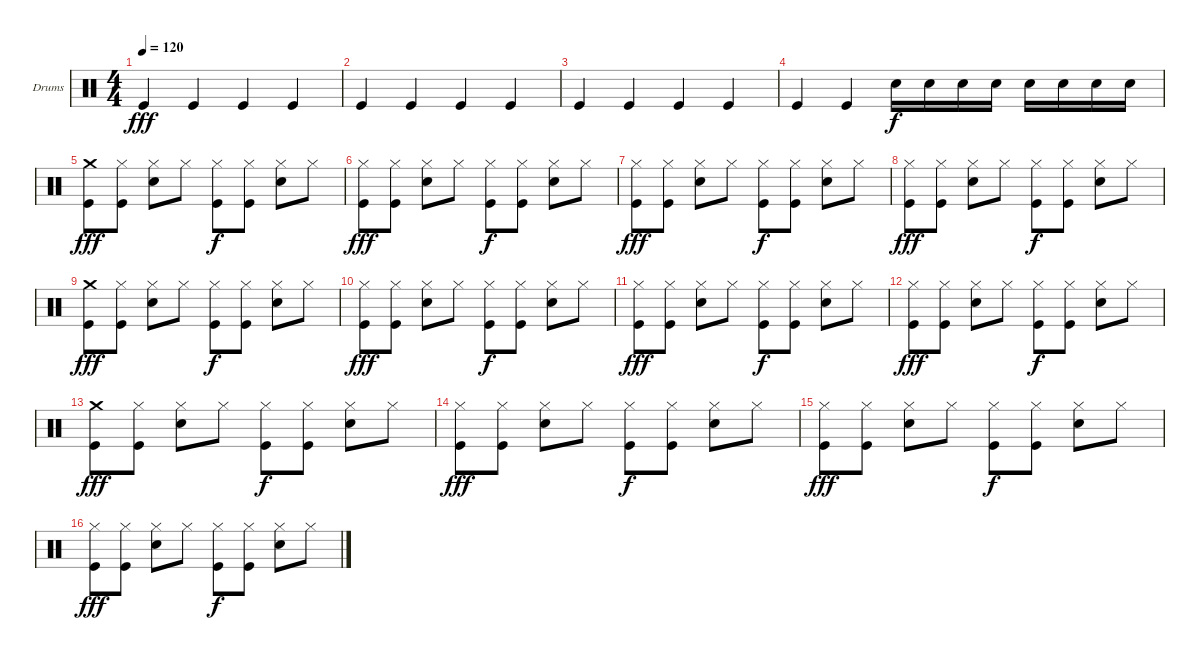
\defaultSystemsLayout 4
\bracketExtendMode groupsimilarinstruments
\firstSystemTrackNameOrientation horizontal
\otherSystemsTrackNameOrientation horizontal
\track ("Drumkit" "Drums") {instrument percussion}
\staff {score}
\articulation defaults
\ts (4 4)
\tempo 120
\clef neutral
\ks c "Kick (hit)".4{dy fff} "Kick (hit)".4 "Kick (hit)".4 "Kick (hit)".4
|
"Kick (hit)".4 "Kick (hit)".4 "Kick (hit)".4 "Kick (hit)".4 |
"Kick (hit)".4 "Kick (hit)".4 "Kick (hit)".4 "Kick (hit)".4 |
"Kick (hit)".4 "Kick (hit)".4 "Snare (hit) 2".16{dy f} "Snare (hit) 2".16 "Snare (hit) 2".16 "Snare (hit) 2".16 "Snare (hit) 2".16 "Snare (hit) 2".16 "Snare (hit) 2".16 "Snare (hit) 2".16 |
("Crash medium (hit)" "Kick (hit)").8{dy fff} ("Hi-Hat (closed)" "Kick (hit)").8 ("Hi-Hat (closed)" "Snare (hit) 2").8 "Hi-Hat (closed)".8 ("Hi-Hat (closed)" "Kick (hit)").8{dy f} ("Hi-Hat (closed)" "Kick (hit)").8 ("Hi-Hat (closed)" "Snare (hit) 2").8 "Hi-Hat (closed)".8 |
("Hi-Hat (closed)" "Kick (hit)").8{dy fff} ("Hi-Hat (closed)" "Kick (hit)").8 ("Hi-Hat (closed)" "Snare (hit) 2").8 "Hi-Hat (closed)".8 ("Hi-Hat (closed)" "Kick (hit)").8{dy f} ("Hi-Hat (closed)" "Kick (hit)").8 ("Hi-Hat (closed)" "Snare (hit) 2").8 "Hi-Hat (closed)".8 |
("Hi-Hat (closed)" "Kick (hit)").8{dy fff} ("Hi-Hat (closed)" "Kick (hit)").8 ("Hi-Hat (closed)" "Snare (hit) 2").8 "Hi-Hat (closed)".8 ("Hi-Hat (closed)" "Kick (hit)").8{dy f} ("Hi-Hat (closed)" "Kick (hit)").8 ("Hi-Hat (closed)" "Snare (hit) 2").8 "Hi-Hat (closed)".8 |
("Hi-Hat (closed)" "Kick (hit)").8{dy fff} ("Hi-Hat (closed)" "Kick (hit)").8 ("Hi-Hat (closed)" "Snare (hit) 2").8 "Hi-Hat (closed)".8 ("Hi-Hat (closed)" "Kick (hit)").8{dy f} ("Hi-Hat (closed)" "Kick (hit)").8 ("Hi-Hat (closed)" "Snare (hit) 2").8 "Hi-Hat (closed)".8 |
("Crash medium (hit)" "Kick (hit)").8{dy fff} ("Hi-Hat (closed)" "Kick (hit)").8 ("Hi-Hat (closed)" "Snare (hit) 2").8 "Hi-Hat (closed)".8 ("Hi-Hat (closed)" "Kick (hit)").8{dy f} ("Hi-Hat (closed)" "Kick (hit)").8 ("Hi-Hat (closed)" "Snare (hit) 2").8 "Hi-Hat (closed)".8 |
("Hi-Hat (closed)" "Kick (hit)").8{dy fff} ("Hi-Hat (closed)" "Kick (hit)").8 ("Hi-Hat (closed)" "Snare (hit) 2").8 "Hi-Hat (closed)".8 ("Hi-Hat (closed)" "Kick (hit)").8{dy f} ("Hi-Hat (closed)" "Kick (hit)").8 ("Hi-Hat (closed)" "Snare (hit) 2").8 "Hi-Hat (closed)".8 |
("Hi-Hat (closed)" "Kick (hit)").8{dy fff} ("Hi-Hat (closed)" "Kick (hit)").8 ("Hi-Hat (closed)" "Snare (hit) 2").8 "Hi-Hat (closed)".8 ("Hi-Hat (closed)" "Kick (hit)").8{dy f} ("Hi-Hat (closed)" "Kick (hit)").8 ("Hi-Hat (closed)" "Snare (hit) 2").8 "Hi-Hat (closed)".8 |
("Hi-Hat (closed)" "Kick (hit)").8{dy fff} ("Hi-Hat (closed)" "Kick (hit)").8 ("Hi-Hat (closed)" "Snare (hit) 2").8 "Hi-Hat (closed)".8 ("Hi-Hat (closed)" "Kick (hit)").8{dy f} ("Hi-Hat (closed)" "Kick (hit)").8 ("Hi-Hat (closed)" "Snare (hit) 2").8 "Hi-Hat (closed)".8 |
("Crash medium (hit)" "Kick (hit)").8{dy fff} ("Hi-Hat (closed)" "Kick (hit)").8 ("Hi-Hat (closed)" "Snare (hit) 2").8 "Hi-Hat (closed)".8 ("Hi-Hat (closed)" "Kick (hit)").8{dy f} ("Hi-Hat (closed)" "Kick (hit)").8 ("Hi-Hat (closed)" "Snare (hit) 2").8 "Hi-Hat (closed)".8 |
("Hi-Hat (closed)" "Kick (hit)").8{dy fff} ("Hi-Hat (closed)" "Kick (hit)").8 ("Hi-Hat (closed)" "Snare (hit) 2").8 "Hi-Hat (closed)".8 ("Hi-Hat (closed)" "Kick (hit)").8{dy f} ("Hi-Hat (closed)" "Kick (hit)").8 ("Hi-Hat (closed)" "Snare (hit) 2").8 "Hi-Hat (closed)".8 |
("Hi-Hat (closed)" "Kick (hit)").8{dy fff} ("Hi-Hat (closed)" "Kick (hit)").8 ("Hi-Hat (closed)" "Snare (hit) 2").8 "Hi-Hat (closed)".8 ("Hi-Hat (closed)" "Kick (hit)").8{dy f} ("Hi-Hat (closed)" "Kick (hit)").8 ("Hi-Hat (closed)" "Snare (hit) 2").8 "Hi-Hat (closed)".8 |
("Hi-Hat (closed)" "Kick (hit)").8{dy fff} ("Hi-Hat (closed)" "Kick (hit)").8 ("Hi-Hat (closed)" "Snare (hit) 2").8 "Hi-Hat (closed)".8 ("Hi-Hat (closed)" "Kick (hit)").8{dy f} ("Hi-Hat (closed)" "Kick (hit)").8 ("Hi-Hat (closed)" "Snare (hit) 2").8 "Hi-Hat (closed)".8
